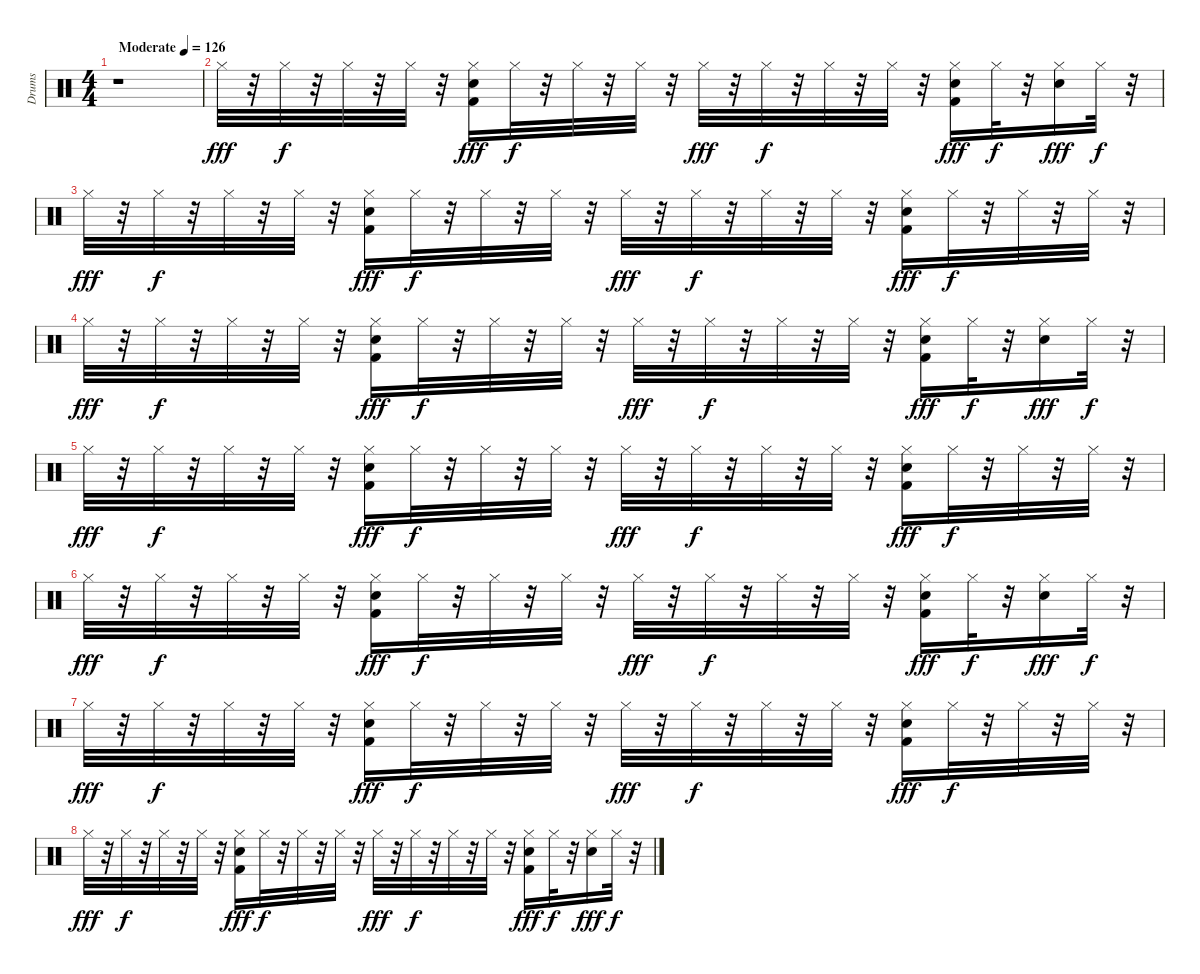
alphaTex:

\track ("Drums" "Drums") {instrument percussion}
\staff {score}
\articulation defaults
\ts (4 4)
\tempo (126 "Moderate")
\clef neutral
\ks c
r.1{dy fff} |
"Hi-Hat (closed)".32 r.32 "Hi-Hat (closed)".32{dy f} r.32 "Hi-Hat (closed)".32 r.32 "Hi-Hat (closed)".32 r.32 ("Hi-Hat (closed)" "Kick (hit) 2" "Hand Clap (hit)").16{dy fff} "Hi-Hat (closed)".32{dy f} r.32 "Hi-Hat (closed)".32 r.32 "Hi-Hat (closed)".32 r.32 "Hi-Hat (closed)".32{dy fff} r.32 "Hi-Hat (closed)".32{dy f} r.32 "Hi-Hat (closed)".32 r.32 "Hi-Hat (closed)".32 r.32 ("Kick (hit) 2" "Hand Clap (hit)" "Hi-Hat (closed)").16{dy fff} "Hi-Hat (closed)".32{dy f} r.32 ("Hi-Hat (closed)" "Hand Clap (hit)").16{dy fff} "Hi-Hat (closed)".32{dy f} r.32 |
"Hi-Hat (closed)".32{dy fff} r.32 "Hi-Hat (closed)".32{dy f} r.32 "Hi-Hat (closed)".32 r.32 "Hi-Hat (closed)".32 r.32 ("Hi-Hat (closed)" "Kick (hit) 2" "Hand Clap (hit)").16{dy fff} "Hi-Hat (closed)".32{dy f} r.32 "Hi-Hat (closed)".32 r.32 "Hi-Hat (closed)".32 r.32 "Hi-Hat (closed)".32{dy fff} r.32 "Hi-Hat (closed)".32{dy f} r.32 "Hi-Hat (closed)".32 r.32 "Hi-Hat (closed)".32 r.32 ("Hi-Hat (closed)" "Kick (hit) 2" "Hand Clap (hit)").16{dy fff} "Hi-Hat (closed)".32{dy f} r.32 "Hi-Hat (closed)".32 r.32 "Hi-Hat (closed)".32 r.32 |
"Hi-Hat (closed)".32{dy fff} r.32 "Hi-Hat (closed)".32{dy f} r.32 "Hi-Hat (closed)".32 r.32 "Hi-Hat (closed)".32 r.32 ("Hi-Hat (closed)" "Hand Clap (hit)" "Kick (hit) 2").16{dy fff} "Hi-Hat (closed)".32{dy f} r.32 "Hi-Hat (closed)".32 r.32 "Hi-Hat (closed)".32 r.32 "Hi-Hat (closed)".32{dy fff} r.32 "Hi-Hat (closed)".32{dy f} r.32 "Hi-Hat (closed)".32 r.32 "Hi-Hat (closed)".32 r.32 ("Hand Clap (hit)" "Kick (hit) 2" "Hi-Hat (closed)").16{dy fff} "Hi-Hat (closed)".32{dy f} r.32 ("Hi-Hat (closed)" "Hand Clap (hit)").16{dy fff} "Hi-Hat (closed)".32{dy f} r.32 |
"Hi-Hat (closed)".32{dy fff} r.32 "Hi-Hat (closed)".32{dy f} r.32 "Hi-Hat (closed)".32 r.32 "Hi-Hat (closed)".32 r.32 ("Kick (hit) 2" "Hand Clap (hit)" "Hi-Hat (closed)").16{dy fff} "Hi-Hat (closed)".32{dy f} r.32 "Hi-Hat (closed)".32 r.32 "Hi-Hat (closed)".32 r.32 "Hi-Hat (closed)".32{dy fff} r.32 "Hi-Hat (closed)".32{dy f} r.32 "Hi-Hat (closed)".32 r.32 "Hi-Hat (closed)".32 r.32 ("Kick (hit) 2" "Hi-Hat (closed)" "Hand Clap (hit)").16{dy fff} "Hi-Hat (closed)".32{dy f} r.32 "Hi-Hat (closed)".32 r.32 "Hi-Hat (closed)".32 r.32 |
"Hi-Hat (closed)".32{dy fff} r.32 "Hi-Hat (closed)".32{dy f} r.32 "Hi-Hat (closed)".32 r.32 "Hi-Hat (closed)".32 r.32 ("Kick (hit) 2" "Hand Clap (hit)" "Hi-Hat (closed)").16{dy fff} "Hi-Hat (closed)".32{dy f} r.32 "Hi-Hat (closed)".32 r.32 "Hi-Hat (closed)".32 r.32 "Hi-Hat (closed)".32{dy fff} r.32 "Hi-Hat (closed)".32{dy f} r.32 "Hi-Hat (closed)".32 r.32 "Hi-Hat (closed)".32 r.32 ("Hand Clap (hit)" "Hi-Hat (closed)" "Kick (hit) 2").16{dy fff} "Hi-Hat (closed)".32{dy f} r.32 ("Hand Clap (hit)" "Hi-Hat (closed)").16{dy fff} "Hi-Hat (closed)".32{dy f} r.32 |
"Hi-Hat (closed)".32{dy fff} r.32 "Hi-Hat (closed)".32{dy f} r.32 "Hi-Hat (closed)".32 r.32 "Hi-Hat (closed)".32 r.32 ("Kick (hit) 2" "Hi-Hat (closed)" "Hand Clap (hit)").16{dy fff} "Hi-Hat (closed)".32{dy f} r.32 "Hi-Hat (closed)".32 r.32 "Hi-Hat (closed)".32 r.32 "Hi-Hat (closed)".32{dy fff} r.32 "Hi-Hat (closed)".32{dy f} r.32 "Hi-Hat (closed)".32 r.32 "Hi-Hat (closed)".32 r.32 ("Hi-Hat (closed)" "Kick (hit) 2" "Hand Clap (hit)").16{dy fff} "Hi-Hat (closed)".32{dy f} r.32 "Hi-Hat (closed)".32 r.32 "Hi-Hat (closed)".32 r.32 |
"Hi-Hat (closed)".32{dy fff} r.32 "Hi-Hat (closed)".32{dy f} r.32 "Hi-Hat (closed)".32 r.32 "Hi-Hat (closed)".32 r.32 ("Hand Clap (hit)" "Hi-Hat (closed)" "Kick (hit) 2").16{dy fff} "Hi-Hat (closed)".32{dy f} r.32 "Hi-Hat (closed)".32 r.32 "Hi-Hat (closed)".32 r.32 "Hi-Hat (closed)".32{dy fff} r.32 "Hi-Hat (closed)".32{dy f} r.32 "Hi-Hat (closed)".32 r.32 "Hi-Hat (closed)".32 r.32 ("Kick (hit) 2" "Hi-Hat (closed)" "Hand Clap (hit)").16{dy fff} "Hi-Hat (closed)".32{dy f} r.32 ("Hand Clap (hit)" "Hi-Hat (closed)").16{dy fff} "Hi-Hat (closed)".32{dy f} r.32
